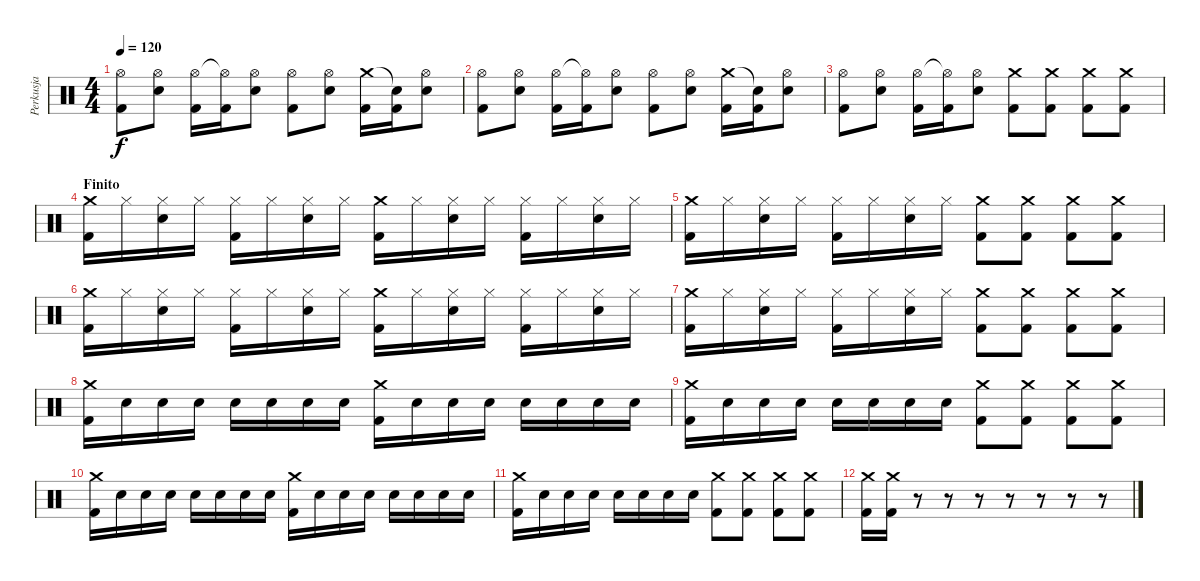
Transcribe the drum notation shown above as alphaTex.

\track ("Perkusja" "Perkusja") {instrument percussion}
\staff {score}
\articulation defaults
\ts (4 4)
\tempo 120
\clef neutral
\ks c
("Kick (hit) 2" "Hi-Hat (open)").8{dy f} ("Snare (hit) 2" "Hi-Hat (open)").8 ("Kick (hit) 2" "Hi-Hat (open)").16 ("Kick (hit) 2" "Hi-Hat (open)"{t}).16 ("Snare (hit) 2" "Hi-Hat (open)").8 ("Kick (hit) 2" "Hi-Hat (open)").8 ("Snare (hit) 2" "Hi-Hat (open)").8 ("Kick (hit) 2" "Crash medium (hit)").16 ("Kick (hit) 2" "Snare (hit)"{t}).16 ("Snare (hit) 2" "Hi-Hat (open)").8 |
("Kick (hit) 2" "Hi-Hat (open)").8 ("Snare (hit) 2" "Hi-Hat (open)").8 ("Kick (hit) 2" "Hi-Hat (open)").16 ("Kick (hit) 2" "Hi-Hat (open)"{t}).16 ("Snare (hit) 2" "Hi-Hat (open)").8 ("Kick (hit) 2" "Hi-Hat (open)").8 ("Snare (hit) 2" "Hi-Hat (open)").8 ("Kick (hit) 2" "Crash medium (hit)").16 ("Kick (hit) 2" "Snare (hit)"{t}).16 ("Snare (hit) 2" "Hi-Hat (open)").8 |
("Kick (hit) 2" "Hi-Hat (open)").8 ("Snare (hit) 2" "Hi-Hat (open)").8 ("Kick (hit) 2" "Hi-Hat (open)").16 ("Kick (hit) 2" "Hi-Hat (open)"{t}).16 ("Snare (hit) 2" "Hi-Hat (open)").8 ("Kick (hit) 2" "Crash medium (hit)").8 ("Kick (hit) 2" "Crash medium (hit)").8 ("Kick (hit) 2" "Crash medium (hit)").8 ("Kick (hit) 2" "Crash medium (hit)").8 |
\section ("" "Finito")
("Crash medium (hit)" "Kick (hit) 2").16 "Hi-Hat (closed)".16 ("Hi-Hat (closed)" "Snare (hit) 2").16 "Hi-Hat (closed)".16 ("Hi-Hat (closed)" "Kick (hit) 2").16 "Hi-Hat (closed)".16 ("Hi-Hat (closed)" "Snare (hit) 2").16 "Hi-Hat (closed)".16 ("Crash medium (hit)" "Kick (hit) 2").16 "Hi-Hat (closed)".16 ("Hi-Hat (closed)" "Snare (hit) 2").16 "Hi-Hat (closed)".16 ("Hi-Hat (closed)" "Kick (hit) 2").16 "Hi-Hat (closed)".16 ("Hi-Hat (closed)" "Snare (hit) 2").16 "Hi-Hat (closed)".16 |
("Crash medium (hit)" "Kick (hit) 2").16 "Hi-Hat (closed)".16 ("Hi-Hat (closed)" "Snare (hit) 2").16 "Hi-Hat (closed)".16 ("Hi-Hat (closed)" "Kick (hit) 2").16 "Hi-Hat (closed)".16 ("Hi-Hat (closed)" "Snare (hit) 2").16 "Hi-Hat (closed)".16 ("Crash medium (hit)" "Kick (hit) 2").8 ("Crash medium (hit)" "Kick (hit) 2").8 ("Crash medium (hit)" "Kick (hit) 2").8 ("Crash medium (hit)" "Kick (hit) 2").8 |
("Crash medium (hit)" "Kick (hit) 2").16 "Hi-Hat (closed)".16 ("Hi-Hat (closed)" "Snare (hit) 2").16 "Hi-Hat (closed)".16 ("Hi-Hat (closed)" "Kick (hit) 2").16 "Hi-Hat (closed)".16 ("Hi-Hat (closed)" "Snare (hit) 2").16 "Hi-Hat (closed)".16 ("Crash medium (hit)" "Kick (hit) 2").16 "Hi-Hat (closed)".16 ("Hi-Hat (closed)" "Snare (hit) 2").16 "Hi-Hat (closed)".16 ("Hi-Hat (closed)" "Kick (hit) 2").16 "Hi-Hat (closed)".16 ("Hi-Hat (closed)" "Snare (hit) 2").16 "Hi-Hat (closed)".16 |
("Crash medium (hit)" "Kick (hit) 2").16 "Hi-Hat (closed)".16 ("Hi-Hat (closed)" "Snare (hit) 2").16 "Hi-Hat (closed)".16 ("Hi-Hat (closed)" "Kick (hit) 2").16 "Hi-Hat (closed)".16 ("Hi-Hat (closed)" "Snare (hit) 2").16 "Hi-Hat (closed)".16 ("Crash medium (hit)" "Kick (hit) 2").8 ("Crash medium (hit)" "Kick (hit) 2").8 ("Crash medium (hit)" "Kick (hit) 2").8 ("Crash medium (hit)" "Kick (hit) 2").8 |
("Crash medium (hit)" "Kick (hit) 2").16 "Snare (hit) 2".16 "Snare (hit) 2".16 "Snare (hit) 2".16 "Snare (hit) 2".16 "Snare (hit) 2".16 "Snare (hit) 2".16 "Snare (hit) 2".16 ("Crash medium (hit)" "Kick (hit) 2").16 "Snare (hit) 2".16 "Snare (hit) 2".16 "Snare (hit) 2".16 "Snare (hit) 2".16 "Snare (hit) 2".16 "Snare (hit) 2".16 "Snare (hit) 2".16 |
("Crash medium (hit)" "Kick (hit) 2").16 "Snare (hit) 2".16 "Snare (hit) 2".16 "Snare (hit) 2".16 "Snare (hit) 2".16 "Snare (hit) 2".16 "Snare (hit) 2".16 "Snare (hit) 2".16 ("Crash medium (hit)" "Kick (hit) 2").8 ("Crash medium (hit)" "Kick (hit) 2").8 ("Crash medium (hit)" "Kick (hit) 2").8 ("Crash medium (hit)" "Kick (hit) 2").8 |
("Crash medium (hit)" "Kick (hit) 2").16 "Snare (hit) 2".16 "Snare (hit) 2".16 "Snare (hit) 2".16 "Snare (hit) 2".16 "Snare (hit) 2".16 "Snare (hit) 2".16 "Snare (hit) 2".16 ("Crash medium (hit)" "Kick (hit) 2").16 "Snare (hit) 2".16 "Snare (hit) 2".16 "Snare (hit) 2".16 "Snare (hit) 2".16 "Snare (hit) 2".16 "Snare (hit) 2".16 "Snare (hit) 2".16 |
("Crash medium (hit)" "Kick (hit) 2").16 "Snare (hit) 2".16 "Snare (hit) 2".16 "Snare (hit) 2".16 "Snare (hit) 2".16 "Snare (hit) 2".16 "Snare (hit) 2".16 "Snare (hit) 2".16 ("Crash medium (hit)" "Kick (hit) 2").8 ("Crash medium (hit)" "Kick (hit) 2").8 ("Crash medium (hit)" "Kick (hit) 2").8 ("Crash medium (hit)" "Kick (hit) 2").8 |
("Kick (hit) 2" "Crash medium (hit)").16 ("Kick (hit) 2" "Crash medium (hit)").16 r.8 r.8 r.8 r.8 r.8 r.8 r.8
